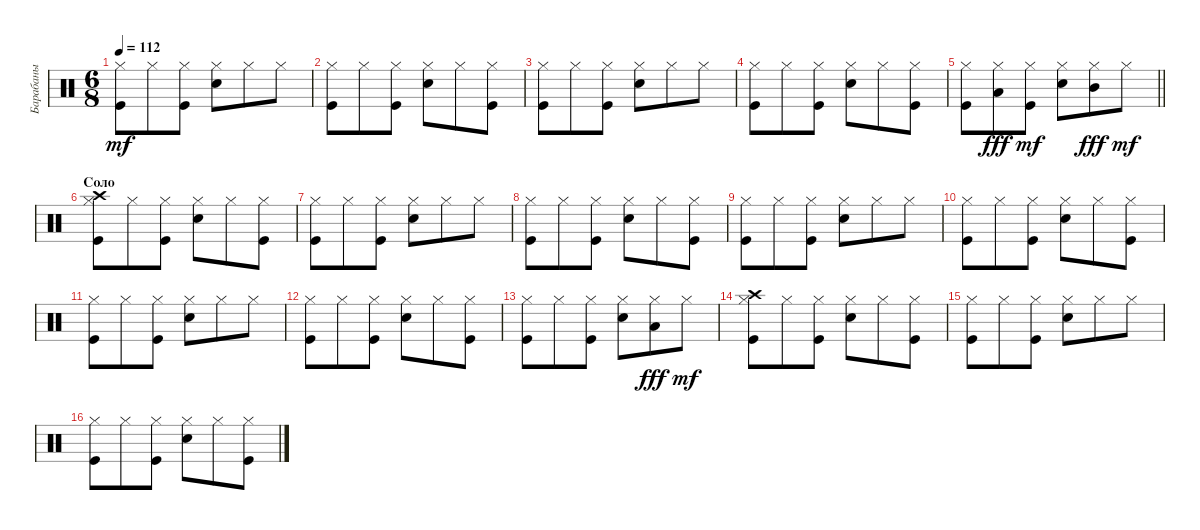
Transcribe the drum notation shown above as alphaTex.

\track ("Барабаны" "Барабаны") {instrument percussion}
\staff {score}
\articulation defaults
\ts (6 8)
\tempo 112
\clef neutral
\ks c
("Kick (hit)" "Hi-Hat (closed)").8{dy mf} "Hi-Hat (closed)".8 ("Kick (hit)" "Hi-Hat (closed)").8 ("Snare (hit) 2" "Hi-Hat (closed)").8 "Hi-Hat (closed)".8 "Hi-Hat (closed)".8 |
("Kick (hit)" "Hi-Hat (closed)").8 "Hi-Hat (closed)".8 ("Kick (hit)" "Hi-Hat (closed)").8 ("Snare (hit) 2" "Hi-Hat (closed)").8 "Hi-Hat (closed)".8 ("Kick (hit)" "Hi-Hat (closed)").8 |
("Kick (hit)" "Hi-Hat (closed)").8 "Hi-Hat (closed)".8 ("Kick (hit)" "Hi-Hat (closed)").8 ("Snare (hit) 2" "Hi-Hat (closed)").8 "Hi-Hat (closed)".8 "Hi-Hat (closed)".8 |
("Kick (hit)" "Hi-Hat (closed)").8 "Hi-Hat (closed)".8 ("Kick (hit)" "Hi-Hat (closed)").8 ("Snare (hit) 2" "Hi-Hat (closed)").8 "Hi-Hat (closed)".8 ("Kick (hit)" "Hi-Hat (closed)").8 |
\barLineRight lightlight
("Kick (hit)" "Hi-Hat (closed)").8 ("Hi-Hat (closed)" "Low Tom (hit)").8{dy fff} ("Kick (hit)" "Hi-Hat (closed)").8{dy mf} ("Snare (hit) 2" "Hi-Hat (closed)").8 ("Hi-Hat (closed)" "Mid Tom (hit)").8{dy fff} "Hi-Hat (closed)".8{dy mf} |
\section ("" "Соло")
("Kick (hit)" "Hi-Hat (closed)" "Crash high (hit)").8 "Hi-Hat (closed)".8 ("Kick (hit)" "Hi-Hat (closed)").8 ("Snare (hit) 2" "Hi-Hat (closed)").8 "Hi-Hat (closed)".8 ("Kick (hit)" "Hi-Hat (closed)").8 |
("Kick (hit)" "Hi-Hat (closed)").8 "Hi-Hat (closed)".8 ("Kick (hit)" "Hi-Hat (closed)").8 ("Snare (hit) 2" "Hi-Hat (closed)").8 "Hi-Hat (closed)".8 "Hi-Hat (closed)".8 |
("Kick (hit)" "Hi-Hat (closed)").8 "Hi-Hat (closed)".8 ("Kick (hit)" "Hi-Hat (closed)").8 ("Snare (hit) 2" "Hi-Hat (closed)").8 "Hi-Hat (closed)".8 ("Kick (hit)" "Hi-Hat (closed)").8 |
("Kick (hit)" "Hi-Hat (closed)").8 "Hi-Hat (closed)".8 ("Kick (hit)" "Hi-Hat (closed)").8 ("Snare (hit) 2" "Hi-Hat (closed)").8 "Hi-Hat (closed)".8 "Hi-Hat (closed)".8 |
("Kick (hit)" "Hi-Hat (closed)").8 "Hi-Hat (closed)".8 ("Kick (hit)" "Hi-Hat (closed)").8 ("Snare (hit) 2" "Hi-Hat (closed)").8 "Hi-Hat (closed)".8 ("Kick (hit)" "Hi-Hat (closed)").8 |
("Kick (hit)" "Hi-Hat (closed)").8 "Hi-Hat (closed)".8 ("Kick (hit)" "Hi-Hat (closed)").8 ("Snare (hit) 2" "Hi-Hat (closed)").8 "Hi-Hat (closed)".8 "Hi-Hat (closed)".8 |
("Kick (hit)" "Hi-Hat (closed)").8 "Hi-Hat (closed)".8 ("Kick (hit)" "Hi-Hat (closed)").8 ("Snare (hit) 2" "Hi-Hat (closed)").8 "Hi-Hat (closed)".8 ("Kick (hit)" "Hi-Hat (closed)").8 |
("Kick (hit)" "Hi-Hat (closed)").8 "Hi-Hat (closed)".8 ("Kick (hit)" "Hi-Hat (closed)").8 ("Snare (hit) 2" "Hi-Hat (closed)").8 ("Hi-Hat (closed)" "Low Tom (hit)").8{dy fff} "Hi-Hat (closed)".8{dy mf} |
("Kick (hit)" "Hi-Hat (closed)" "Crash high (hit)").8 "Hi-Hat (closed)".8 ("Kick (hit)" "Hi-Hat (closed)").8 ("Snare (hit) 2" "Hi-Hat (closed)").8 "Hi-Hat (closed)".8 ("Kick (hit)" "Hi-Hat (closed)").8 |
("Kick (hit)" "Hi-Hat (closed)").8 "Hi-Hat (closed)".8 ("Kick (hit)" "Hi-Hat (closed)").8 ("Snare (hit) 2" "Hi-Hat (closed)").8 "Hi-Hat (closed)".8 "Hi-Hat (closed)".8 |
("Kick (hit)" "Hi-Hat (closed)").8 "Hi-Hat (closed)".8 ("Kick (hit)" "Hi-Hat (closed)").8 ("Snare (hit) 2" "Hi-Hat (closed)").8 "Hi-Hat (closed)".8 ("Kick (hit)" "Hi-Hat (closed)").8
